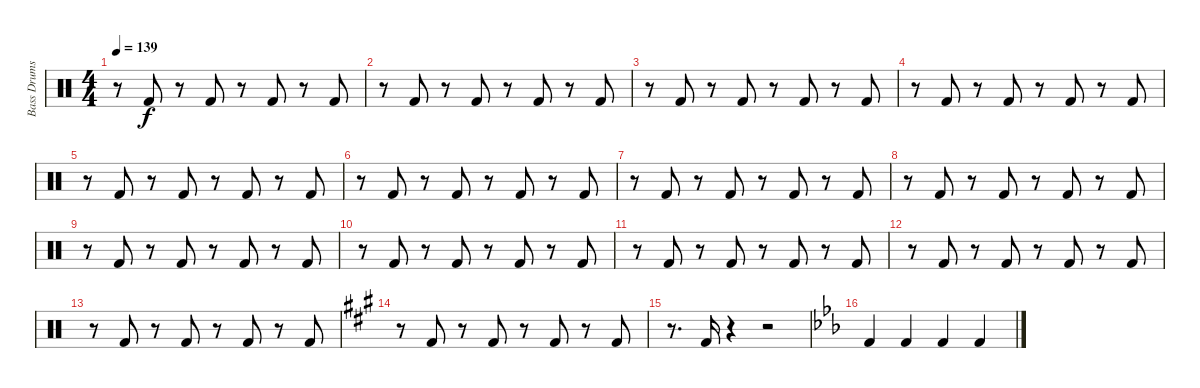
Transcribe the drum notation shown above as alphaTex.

\track ("Bass Drums" "Bass Drums") {instrument percussion}
\staff {score}
\articulation defaults
\ts (4 4)
\tempo 139
\clef neutral
\ks c
r.8{dy f} "Kick (hit) 2".8 r.8 "Kick (hit) 2".8 r.8 "Kick (hit) 2".8 r.8 "Kick (hit) 2".8 |
r.8 "Kick (hit) 2".8 r.8 "Kick (hit) 2".8 r.8 "Kick (hit) 2".8 r.8 "Kick (hit) 2".8 |
r.8 "Kick (hit) 2".8 r.8 "Kick (hit) 2".8 r.8 "Kick (hit) 2".8 r.8 "Kick (hit) 2".8 |
r.8 "Kick (hit) 2".8 r.8 "Kick (hit) 2".8 r.8 "Kick (hit) 2".8 r.8 "Kick (hit) 2".8 |
r.8 "Kick (hit) 2".8 r.8 "Kick (hit) 2".8 r.8 "Kick (hit) 2".8 r.8 "Kick (hit) 2".8 |
r.8 "Kick (hit) 2".8 r.8 "Kick (hit) 2".8 r.8 "Kick (hit) 2".8 r.8 "Kick (hit) 2".8 |
r.8 "Kick (hit) 2".8 r.8 "Kick (hit) 2".8 r.8 "Kick (hit) 2".8 r.8 "Kick (hit) 2".8 |
r.8 "Kick (hit) 2".8 r.8 "Kick (hit) 2".8 r.8 "Kick (hit) 2".8 r.8 "Kick (hit) 2".8 |
r.8 "Kick (hit) 2".8 r.8 "Kick (hit) 2".8 r.8 "Kick (hit) 2".8 r.8 "Kick (hit) 2".8 |
r.8 "Kick (hit) 2".8 r.8 "Kick (hit) 2".8 r.8 "Kick (hit) 2".8 r.8 "Kick (hit) 2".8 |
r.8 "Kick (hit) 2".8 r.8 "Kick (hit) 2".8 r.8 "Kick (hit) 2".8 r.8 "Kick (hit) 2".8 |
r.8 "Kick (hit) 2".8 r.8 "Kick (hit) 2".8 r.8 "Kick (hit) 2".8 r.8 "Kick (hit) 2".8 |
r.8 "Kick (hit) 2".8 r.8 "Kick (hit) 2".8 r.8 "Kick (hit) 2".8 r.8 "Kick (hit) 2".8 |
\ks a
r.8 "Kick (hit) 2".8 r.8 "Kick (hit) 2".8 r.8 "Kick (hit) 2".8 r.8 "Kick (hit) 2".8 |
r.8{d} "Kick (hit) 2".16 r.4 r.2 |
\ks eb "Kick (hit) 2".4 "Kick (hit) 2".4 "Kick (hit) 2".4 "Kick (hit) 2".4
